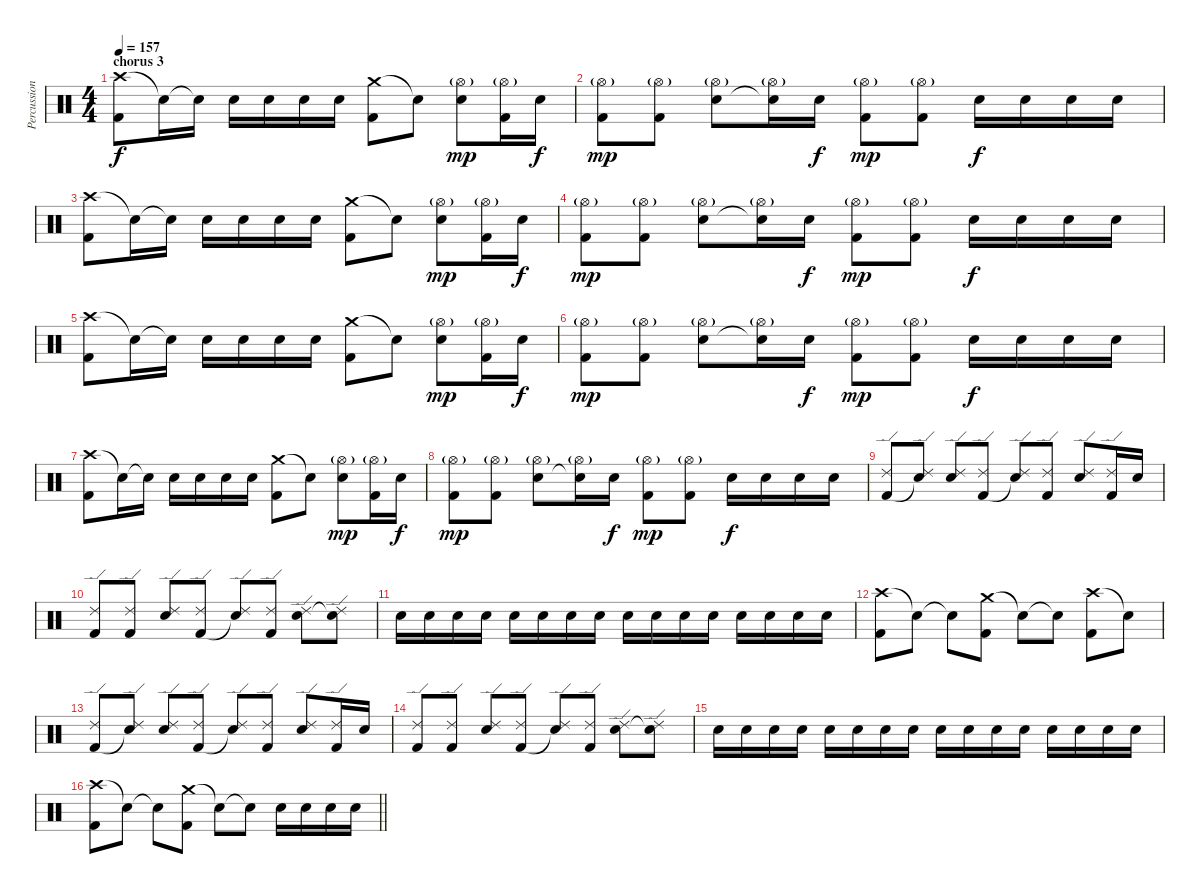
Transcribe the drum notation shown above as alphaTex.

\track ("Percussion" "Percussion") {instrument percussion}
\staff {score}
\articulation defaults
\ts (4 4)
\section ("" "chorus 3")
\tempo 157
\clef neutral
\ks c
("Crash high (hit)" "Kick (hit) 2").8{dy f} "Electric Snare (hit)"{t}.16 "Electric Snare (hit)"{t}.16 "Electric Snare (hit)".16 "Electric Snare (hit)".16 "Electric Snare (hit)".16 "Electric Snare (hit)".16 ("Crash medium (hit)" "Kick (hit) 2").8 "Snare (hit)"{t}.8 ("Hi-Hat (open)"{g} "Electric Snare (hit)").8{dy mp} ("Hi-Hat (open)"{g} "Kick (hit) 2").16 "Electric Snare (hit)".16{dy f} |
("Hi-Hat (open)"{g} "Kick (hit) 2").8{dy mp} ("Hi-Hat (open)"{g} "Kick (hit) 2").8 ("Hi-Hat (open)"{g} "Electric Snare (hit)").8 ("Hi-Hat (open)"{g} "Snare (hit)"{t}).16 "Electric Snare (hit)".16{dy f} ("Hi-Hat (open)"{g} "Kick (hit) 2").8{dy mp} ("Hi-Hat (open)"{g} "Kick (hit) 2").8 "Electric Snare (hit)".16{dy f} "Electric Snare (hit)".16 "Electric Snare (hit)".16 "Electric Snare (hit)".16 |
("Crash high (hit)" "Kick (hit) 2").8 "Electric Snare (hit)"{t}.16 "Electric Snare (hit)"{t}.16 "Electric Snare (hit)".16 "Electric Snare (hit)".16 "Electric Snare (hit)".16 "Electric Snare (hit)".16 ("Crash medium (hit)" "Kick (hit) 2").8 "Snare (hit)"{t}.8 ("Hi-Hat (open)"{g} "Electric Snare (hit)").8{dy mp} ("Hi-Hat (open)"{g} "Kick (hit) 2").16 "Electric Snare (hit)".16{dy f} |
("Hi-Hat (open)"{g} "Kick (hit) 2").8{dy mp} ("Hi-Hat (open)"{g} "Kick (hit) 2").8 ("Hi-Hat (open)"{g} "Electric Snare (hit)").8 ("Hi-Hat (open)"{g} "Snare (hit)"{t}).16 "Electric Snare (hit)".16{dy f} ("Hi-Hat (open)"{g} "Kick (hit) 2").8{dy mp} ("Hi-Hat (open)"{g} "Kick (hit) 2").8 "Electric Snare (hit)".16{dy f} "Electric Snare (hit)".16 "Electric Snare (hit)".16 "Electric Snare (hit)".16 |
("Crash high (hit)" "Kick (hit) 2").8 "Electric Snare (hit)"{t}.16 "Electric Snare (hit)"{t}.16 "Electric Snare (hit)".16 "Electric Snare (hit)".16 "Electric Snare (hit)".16 "Electric Snare (hit)".16 ("Crash medium (hit)" "Kick (hit) 2").8 "Snare (hit)"{t}.8 ("Hi-Hat (open)"{g} "Electric Snare (hit)").8{dy mp} ("Hi-Hat (open)"{g} "Kick (hit) 2").16 "Electric Snare (hit)".16{dy f} |
("Hi-Hat (open)"{g} "Kick (hit) 2").8{dy mp} ("Hi-Hat (open)"{g} "Kick (hit) 2").8 ("Hi-Hat (open)"{g} "Electric Snare (hit)").8 ("Hi-Hat (open)"{g} "Snare (hit)"{t}).16 "Electric Snare (hit)".16{dy f} ("Hi-Hat (open)"{g} "Kick (hit) 2").8{dy mp} ("Hi-Hat (open)"{g} "Kick (hit) 2").8 "Electric Snare (hit)".16{dy f} "Electric Snare (hit)".16 "Electric Snare (hit)".16 "Electric Snare (hit)".16 |
("Crash high (hit)" "Kick (hit) 2").8 "Electric Snare (hit)"{t}.16 "Electric Snare (hit)"{t}.16 "Electric Snare (hit)".16 "Electric Snare (hit)".16 "Electric Snare (hit)".16 "Electric Snare (hit)".16 ("Crash medium (hit)" "Kick (hit) 2").8 "Snare (hit)"{t}.8 ("Hi-Hat (open)"{g} "Electric Snare (hit)").8{dy mp} ("Hi-Hat (open)"{g} "Kick (hit) 2").16 "Electric Snare (hit)".16{dy f} |
("Hi-Hat (open)"{g} "Kick (hit) 2").8{dy mp} ("Hi-Hat (open)"{g} "Kick (hit) 2").8 ("Hi-Hat (open)"{g} "Electric Snare (hit)").8 ("Hi-Hat (open)"{g} "Snare (hit)"{t}).16 "Electric Snare (hit)".16{dy f} ("Hi-Hat (open)"{g} "Kick (hit) 2").8{dy mp} ("Hi-Hat (open)"{g} "Kick (hit) 2").8 "Electric Snare (hit)".16{dy f} "Electric Snare (hit)".16 "Electric Snare (hit)".16 "Electric Snare (hit)".16 |
("Ride (edge) 2" "Kick (hit) 2").8 ("Ride (edge) 2" "Snare (hit)"{t}).8 ("Ride (edge) 2" "Electric Snare (hit)").8 ("Ride (edge) 2" "Kick (hit) 2").8 ("Ride (edge) 2" "Snare (hit)"{t}).8 ("Ride (edge) 2" "Kick (hit) 2").8 ("Ride (edge) 2" "Electric Snare (hit)").8 ("Ride (edge) 2" "Kick (hit) 2").16 "Electric Snare (hit)".16 |
("Ride (edge) 2" "Kick (hit) 2").8 ("Ride (edge) 2" "Kick (hit) 2").8 ("Ride (edge) 2" "Electric Snare (hit)").8 ("Ride (edge) 2" "Kick (hit) 2").8 ("Ride (edge) 2" "Snare (hit)"{t}).8 ("Ride (edge) 2" "Kick (hit) 2").8 ("Ride (edge) 2" "Electric Snare (hit)").8 ("Ride (edge) 2" "Snare (hit)"{t}).8 |
"Electric Snare (hit)".16 "Electric Snare (hit)".16 "Electric Snare (hit)".16 "Electric Snare (hit)".16 "Electric Snare (hit)".16 "Electric Snare (hit)".16 "Electric Snare (hit)".16 "Electric Snare (hit)".16 "Electric Snare (hit)".16 "Electric Snare (hit)".16 "Electric Snare (hit)".16 "Electric Snare (hit)".16 "Electric Snare (hit)".16 "Electric Snare (hit)".16 "Electric Snare (hit)".16 "Electric Snare (hit)".16 |
("Crash high (hit)" "Kick (hit) 2").8 "Snare (hit)"{t}.8 "Snare (hit)"{t}.8 ("Crash medium (hit)" "Kick (hit) 2").8 "Snare (hit)"{t}.8 "Snare (hit)"{t}.8 ("Crash high (hit)" "Kick (hit) 2").8 "Snare (hit)"{t}.8 |
("Ride (edge) 2" "Kick (hit) 2").8 ("Ride (edge) 2" "Snare (hit)"{t}).8 ("Ride (edge) 2" "Electric Snare (hit)").8 ("Ride (edge) 2" "Kick (hit) 2").8 ("Ride (edge) 2" "Snare (hit)"{t}).8 ("Ride (edge) 2" "Kick (hit) 2").8 ("Ride (edge) 2" "Electric Snare (hit)").8 ("Ride (edge) 2" "Kick (hit) 2").16 "Electric Snare (hit)".16 |
("Ride (edge) 2" "Kick (hit) 2").8 ("Ride (edge) 2" "Kick (hit) 2").8 ("Ride (edge) 2" "Electric Snare (hit)").8 ("Ride (edge) 2" "Kick (hit) 2").8 ("Ride (edge) 2" "Snare (hit)"{t}).8 ("Ride (edge) 2" "Kick (hit) 2").8 ("Ride (edge) 2" "Electric Snare (hit)").8 ("Ride (edge) 2" "Snare (hit)"{t}).8 |
"Electric Snare (hit)".16 "Electric Snare (hit)".16 "Electric Snare (hit)".16 "Electric Snare (hit)".16 "Electric Snare (hit)".16 "Electric Snare (hit)".16 "Electric Snare (hit)".16 "Electric Snare (hit)".16 "Electric Snare (hit)".16 "Electric Snare (hit)".16 "Electric Snare (hit)".16 "Electric Snare (hit)".16 "Electric Snare (hit)".16 "Electric Snare (hit)".16 "Electric Snare (hit)".16 "Electric Snare (hit)".16 |
\barLineRight lightlight
("Crash high (hit)" "Kick (hit) 2").8 "Snare (hit)"{t}.8 "Snare (hit)"{t}.8 ("Crash medium (hit)" "Kick (hit) 2").8 "Snare (hit)"{t}.8 "Snare (hit)"{t}.8 "Electric Snare (hit)".16 "Electric Snare (hit)".16 "Electric Snare (hit)".16 "Electric Snare (hit)".16
